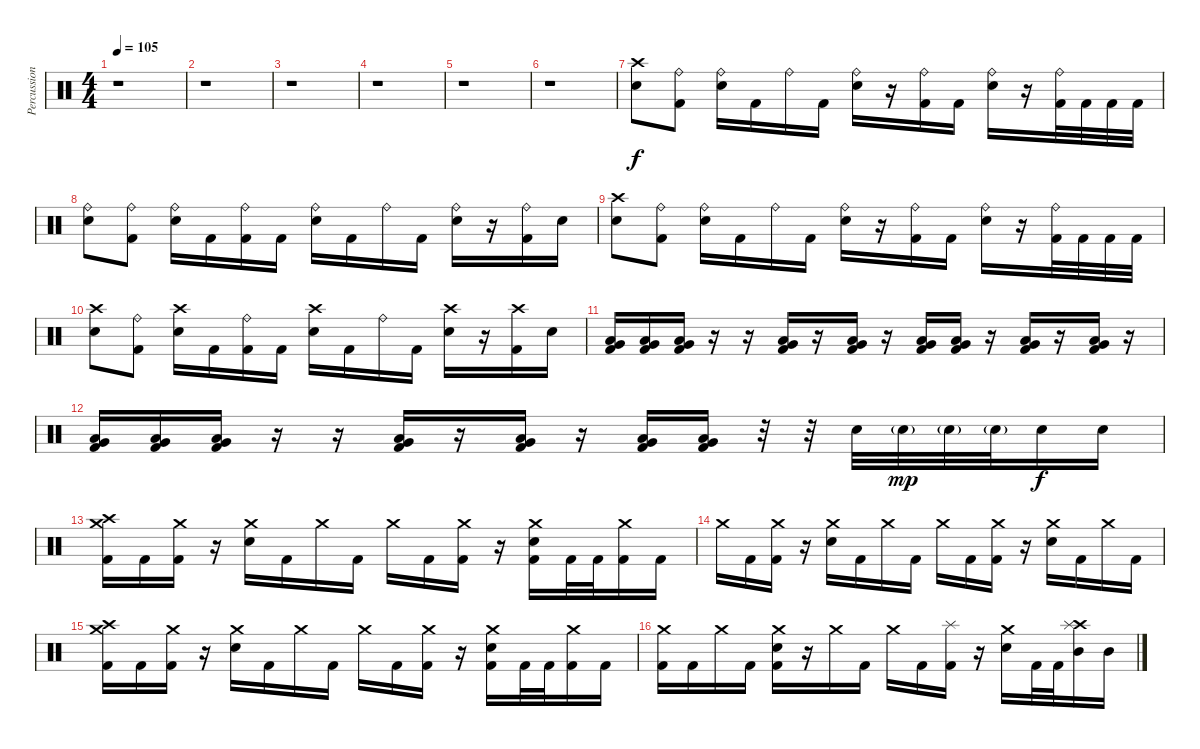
\track ("Percussion" "Percussion") {instrument percussion}
\staff {score}
\articulation defaults
\ts (4 4)
\tempo 105
\clef neutral
\ks c
r.1{dy f} |
r.1 |
r.1 |
r.1 |
r.1 |
r.1 |
("Crash high (hit)" "Electric Snare (hit)").8 ("Ride (bell)" "Kick (hit) 2").8 ("Ride (bell)" "Electric Snare (hit)").16 "Kick (hit) 2".16 "Ride (bell)".16 "Kick (hit) 2".16 ("Ride (bell)" "Electric Snare (hit)").16 r.16 ("Ride (bell)" "Kick (hit) 2").16 "Kick (hit) 2".16 ("Ride (bell)" "Electric Snare (hit)").16 r.16 ("Ride (bell)" "Kick (hit) 2").32 "Kick (hit) 2".32 "Kick (hit) 2".32 "Kick (hit) 2".32 |
("Ride (bell)" "Electric Snare (hit)").8 ("Ride (bell)" "Kick (hit) 2").8 ("Ride (bell)" "Electric Snare (hit)").16 "Kick (hit) 2".16 ("Ride (bell)" "Kick (hit) 2").16 "Kick (hit) 2".16 ("Ride (bell)" "Electric Snare (hit)").16 "Kick (hit) 2".16 "Ride (bell)".16 "Kick (hit) 2".16 ("Ride (bell)" "Electric Snare (hit)").16 r.16 ("Ride (bell)" "Kick (hit) 2").16 "Electric Snare (hit)".16 |
("Crash high (hit)" "Electric Snare (hit)").8 ("Ride (bell)" "Kick (hit) 2").8 ("Ride (bell)" "Electric Snare (hit)").16 "Kick (hit) 2".16 "Ride (bell)".16 "Kick (hit) 2".16 ("Ride (bell)" "Electric Snare (hit)").16 r.16 ("Ride (bell)" "Kick (hit) 2").16 "Kick (hit) 2".16 ("Ride (bell)" "Electric Snare (hit)").16 r.16 ("Ride (bell)" "Kick (hit) 2").32 "Kick (hit) 2".32 "Kick (hit) 2".32 "Kick (hit) 2".32 |
("Crash high (hit)" "Electric Snare (hit)").8 ("Ride (bell)" "Kick (hit) 2").8 ("Crash high (hit)" "Electric Snare (hit)").16 "Kick (hit) 2".16 ("Ride (bell)" "Kick (hit) 2").16 "Kick (hit) 2".16 ("Crash high (hit)" "Electric Snare (hit)").16 "Kick (hit) 2".16 "Ride (bell)".16 "Kick (hit) 2".16 ("Crash high (hit)" "Electric Snare (hit)").16 r.16 ("Crash high (hit)" "Kick (hit) 2").16 "Electric Snare (hit)".16 |
("Low Tom (hit)" "Very Low Tom (hit)" "Kick (hit) 2").16 ("Low Tom (hit)" "Very Low Tom (hit)" "Kick (hit) 2").16 ("Low Tom (hit)" "Very Low Tom (hit)" "Kick (hit) 2").16 r.16 r.16 ("Low Tom (hit)" "Very Low Tom (hit)" "Kick (hit) 2").16 r.16 ("Low Tom (hit)" "Very Low Tom (hit)" "Kick (hit) 2").16 r.16 ("Low Tom (hit)" "Very Low Tom (hit)" "Kick (hit) 2").16 ("Low Tom (hit)" "Very Low Tom (hit)" "Kick (hit) 2").16 r.16 ("Low Tom (hit)" "Very Low Tom (hit)" "Kick (hit) 2").16 r.16 ("Low Tom (hit)" "Very Low Tom (hit)" "Kick (hit) 2").16 r.16 |
("Low Tom (hit)" "Very Low Tom (hit)" "Kick (hit) 2").16 ("Low Tom (hit)" "Very Low Tom (hit)" "Kick (hit) 2").16 ("Low Tom (hit)" "Very Low Tom (hit)" "Kick (hit) 2").16 r.16 r.16 ("Low Tom (hit)" "Very Low Tom (hit)" "Kick (hit) 2").16 r.16 ("Low Tom (hit)" "Very Low Tom (hit)" "Kick (hit) 2").16 r.16 ("Low Tom (hit)" "Very Low Tom (hit)" "Kick (hit) 2").16 ("Low Tom (hit)" "Very Low Tom (hit)" "Kick (hit) 2").16 r.32 r.32 "Electric Snare (hit)".32 "Electric Snare (hit)"{g}.32{dy mp} "Electric Snare (hit)"{g}.32 "Electric Snare (hit)"{g}.32 "Electric Snare (hit)".16{dy f} "Electric Snare (hit)".16 |
("Crash high (hit)" "Crash medium (hit)" "Kick (hit) 2").16 "Kick (hit) 2".16 ("Crash medium (hit)" "Kick (hit) 2").16 r.16 ("Crash medium (hit)" "Electric Snare (hit)").16 "Kick (hit) 2".16 "Crash medium (hit)".16 "Kick (hit) 2".16 "Crash medium (hit)".16 "Kick (hit) 2".16 ("Crash medium (hit)" "Kick (hit) 2").16 r.16 ("Crash medium (hit)" "Electric Snare (hit)" "Kick (hit) 2").16 "Kick (hit) 2".32 "Kick (hit) 2".32 ("Crash medium (hit)" "Kick (hit) 2").16 "Kick (hit) 2".16 |
"Crash medium (hit)".16 "Kick (hit) 2".16 ("Crash medium (hit)" "Kick (hit) 2").16 r.16 ("Crash medium (hit)" "Electric Snare (hit)").16 "Kick (hit) 2".16 "Crash medium (hit)".16 "Kick (hit) 2".16 "Crash medium (hit)".16 "Kick (hit) 2".16 ("Crash medium (hit)" "Kick (hit) 2").16 r.16 ("Crash medium (hit)" "Electric Snare (hit)").16 "Kick (hit) 2".16 "Crash medium (hit)".16 "Kick (hit) 2".16 |
("Crash high (hit)" "Crash medium (hit)" "Kick (hit) 2").16 "Kick (hit) 2".16 ("Crash medium (hit)" "Kick (hit) 2").16 r.16 ("Crash medium (hit)" "Electric Snare (hit)").16 "Kick (hit) 2".16 "Crash medium (hit)".16 "Kick (hit) 2".16 "Crash medium (hit)".16 "Kick (hit) 2".16 ("Crash medium (hit)" "Kick (hit) 2").16 r.16 ("Crash medium (hit)" "Electric Snare (hit)" "Kick (hit) 2").16 "Kick (hit) 2".32 "Kick (hit) 2".32 ("Crash medium (hit)" "Kick (hit) 2").16 "Kick (hit) 2".16 |
("Crash medium (hit)" "Kick (hit) 2").16 "Kick (hit) 2".16 "Crash medium (hit)".16 "Kick (hit) 2".16 ("Crash medium (hit)" "Electric Snare (hit)" "Kick (hit) 2").16 r.16 "Crash medium (hit)".16 "Kick (hit) 2".16 "Crash medium (hit)".16 "Kick (hit) 2".16 ("Splash (hit)" "Kick (hit) 2").16 r.16 ("Crash medium (hit)" "Electric Snare (hit)").16 "Kick (hit) 2".32 "Kick (hit) 2".32 ("Crash high (hit)" "Splash (hit)" "Mid Tom (hit)").16 "Mid Tom (hit)".16
